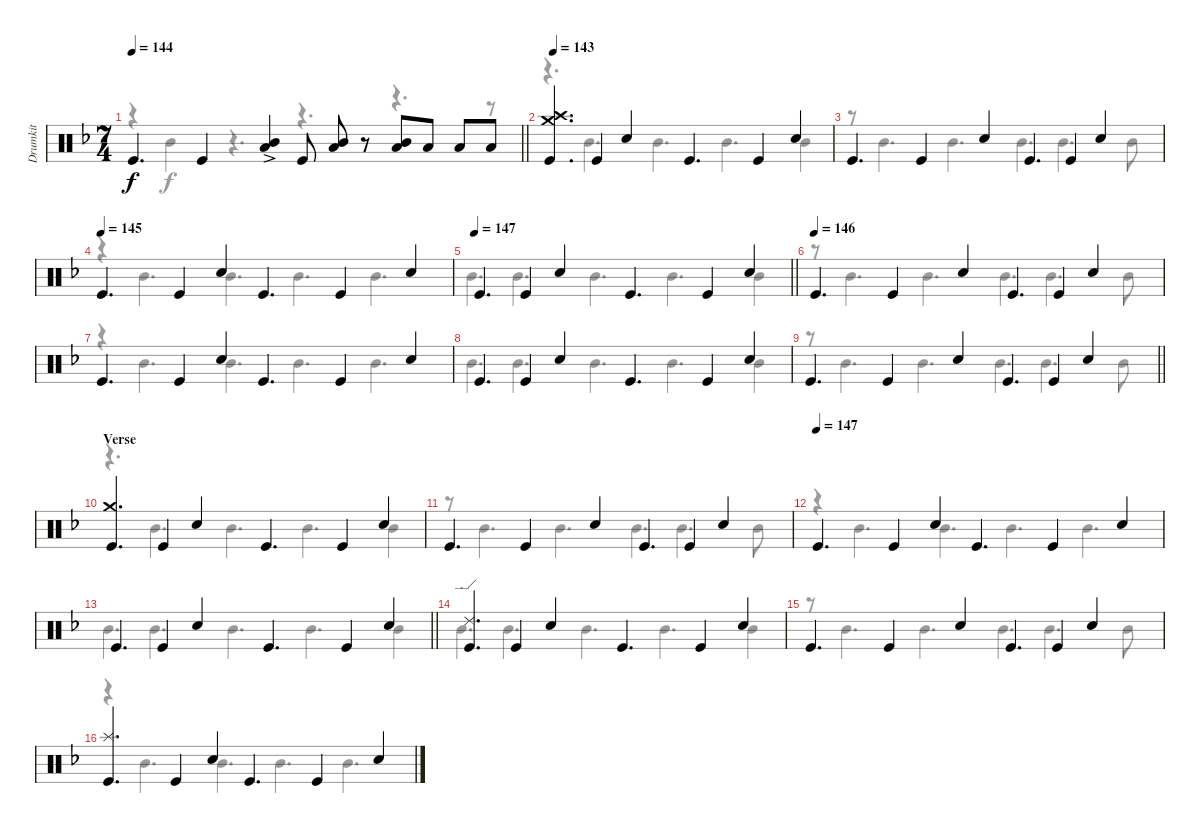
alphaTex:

\track ("Drumkit" "Drumkit") {instrument percussion}
\staff {score}
\articulation defaults
\voice
\ts (7 4)
\tempo 144
\clef neutral
\barLineRight lightlight
\ks dminor "Kick (hit)".4{d dy f} "Kick (hit)".4
("Low Floor Tom (hit)" "Mid Tom (hit)"{ac}).4 "Kick (hit)".8 ("Low Floor Tom (hit)" "Mid Tom (hit)").8 r.8 ("Low Floor Tom (hit)" "Mid Tom (hit)").8 "Low Floor Tom (hit)".8 "Low Floor Tom (hit)".8 "Low Floor Tom (hit)".8 |
\tempo 143
("Crash high (hit)" "Kick (hit)" "Crash medium (hit)").4{d} "Kick (hit)".4 "Snare (hit) 2".4 "Kick (hit)".4{d} "Kick (hit)".4 "Snare (hit) 2".4 |
"Kick (hit)".4{d} "Kick (hit)".4 "Snare (hit) 2".4 "Kick (hit)".4{d} "Kick (hit)".4 "Snare (hit) 2".4 |
\tempo (145)
"Kick (hit)".4{d} "Kick (hit)".4 "Snare (hit) 2".4 "Kick (hit)".4{d} "Kick (hit)".4 "Snare (hit) 2".4 |
\tempo 147
\barLineRight lightlight "Kick (hit)".4{d} "Kick (hit)".4 "Snare (hit) 2".4 "Kick (hit)".4{d} "Kick (hit)".4 "Snare (hit) 2".4
|
\tempo (146)
"Kick (hit)".4{d} "Kick (hit)".4 "Snare (hit) 2".4 "Kick (hit)".4{d} "Kick (hit)".4 "Snare (hit) 2".4 |
"Kick (hit)".4{d} "Kick (hit)".4 "Snare (hit) 2".4 "Kick (hit)".4{d} "Kick (hit)".4 "Snare (hit) 2".4 |
"Kick (hit)".4{d} "Kick (hit)".4 "Snare (hit) 2".4 "Kick (hit)".4{d} "Kick (hit)".4 "Snare (hit) 2".4 |
\barLineRight lightlight "Kick (hit)".4{d} "Kick (hit)".4 "Snare (hit) 2".4 "Kick (hit)".4{d} "Kick (hit)".4 "Snare (hit) 2".4
|
\section ("" "Verse")
("Kick (hit)" "Crash medium (hit)").4{d} "Kick (hit)".4 "Snare (hit) 2".4 "Kick (hit)".4{d} "Kick (hit)".4 "Snare (hit) 2".4 |
"Kick (hit)".4{d} "Kick (hit)".4 "Snare (hit) 2".4 "Kick (hit)".4{d} "Kick (hit)".4 "Snare (hit) 2".4 |
\tempo (147)
"Kick (hit)".4{d} "Kick (hit)".4 "Snare (hit) 2".4 "Kick (hit)".4{d} "Kick (hit)".4 "Snare (hit) 2".4 |
\barLineRight lightlight "Kick (hit)".4{d} "Kick (hit)".4 "Snare (hit) 2".4 "Kick (hit)".4{d} "Kick (hit)".4 "Snare (hit) 2".4
|
("Kick (hit)" "Ride (edge) 2").4{d} "Kick (hit)".4 "Snare (hit) 2".4 "Kick (hit)".4{d} "Kick (hit)".4 "Snare (hit) 2".4 |
"Kick (hit)".4{d} "Kick (hit)".4 "Snare (hit) 2".4 "Kick (hit)".4{d} "Kick (hit)".4 "Snare (hit) 2".4 |
("Kick (hit)" "Splash (hit)").4{d} "Kick (hit)".4 "Snare (hit) 2".4 "Kick (hit)".4{d} "Kick (hit)".4 "Snare (hit) 2".4
\voice
\clef neutral
\ottava regular
\simile none
\barLineRight lightlight
\ks dminor
r.4{dy f} "Mid Tom (hit)".4 r.4{d} r.4{d} r.4{d} r.8 |
r.4{d} "Mid Tom (hit)".4{d} "Mid Tom (hit)".4{d} "Mid Tom (hit)".4{d} "Mid Tom (hit)".4 |
r.8 "Mid Tom (hit)".4{d} "Mid Tom (hit)".4{d} "Mid Tom (hit)".4{d} "Mid Tom (hit)".4{d} "Mid Tom (hit)".8 |
r.4 "Mid Tom (hit)".4{d} "Mid Tom (hit)".4{d} "Mid Tom (hit)".4{d} "Mid Tom (hit)".4{d} |
\barLineRight lightlight "Mid Tom (hit)".4{d} "Mid Tom (hit)".4{d} "Mid Tom (hit)".4{d} "Mid Tom (hit)".4{d} "Mid Tom (hit)".4
|
r.8 "Mid Tom (hit)".4{d} "Mid Tom (hit)".4{d} "Mid Tom (hit)".4{d} "Mid Tom (hit)".4{d} "Mid Tom (hit)".8 |
r.4 "Mid Tom (hit)".4{d} "Mid Tom (hit)".4{d} "Mid Tom (hit)".4{d} "Mid Tom (hit)".4{d} |
"Mid Tom (hit)".4{d} "Mid Tom (hit)".4{d} "Mid Tom (hit)".4{d} "Mid Tom (hit)".4{d} "Mid Tom (hit)".4 |
\barLineRight lightlight
r.8 "Mid Tom (hit)".4{d} "Mid Tom (hit)".4{d} "Mid Tom (hit)".4{d} "Mid Tom (hit)".4{d} "Mid Tom (hit)".8 |
r.4{d} "Mid Tom (hit)".4{d} "Mid Tom (hit)".4{d} "Mid Tom (hit)".4{d} "Mid Tom (hit)".4 |
r.8 "Mid Tom (hit)".4{d} "Mid Tom (hit)".4{d} "Mid Tom (hit)".4{d} "Mid Tom (hit)".4{d} "Mid Tom (hit)".8 |
r.4 "Mid Tom (hit)".4{d} "Mid Tom (hit)".4{d} "Mid Tom (hit)".4{d} "Mid Tom (hit)".4{d} |
\barLineRight lightlight "Mid Tom (hit)".4{d} "Mid Tom (hit)".4{d} "Mid Tom (hit)".4{d} "Mid Tom (hit)".4{d} "Mid Tom (hit)".4
|
"Mid Tom (hit)".4{d} "Mid Tom (hit)".4{d} "Mid Tom (hit)".4{d} "Mid Tom (hit)".4{d} "Mid Tom (hit)".4 |
r.8 "Mid Tom (hit)".4{d} "Mid Tom (hit)".4{d} "Mid Tom (hit)".4{d} "Mid Tom (hit)".4{d} "Mid Tom (hit)".8 |
r.4 "Mid Tom (hit)".4{d} "Mid Tom (hit)".4{d} "Mid Tom (hit)".4{d} "Mid Tom (hit)".4{d}
